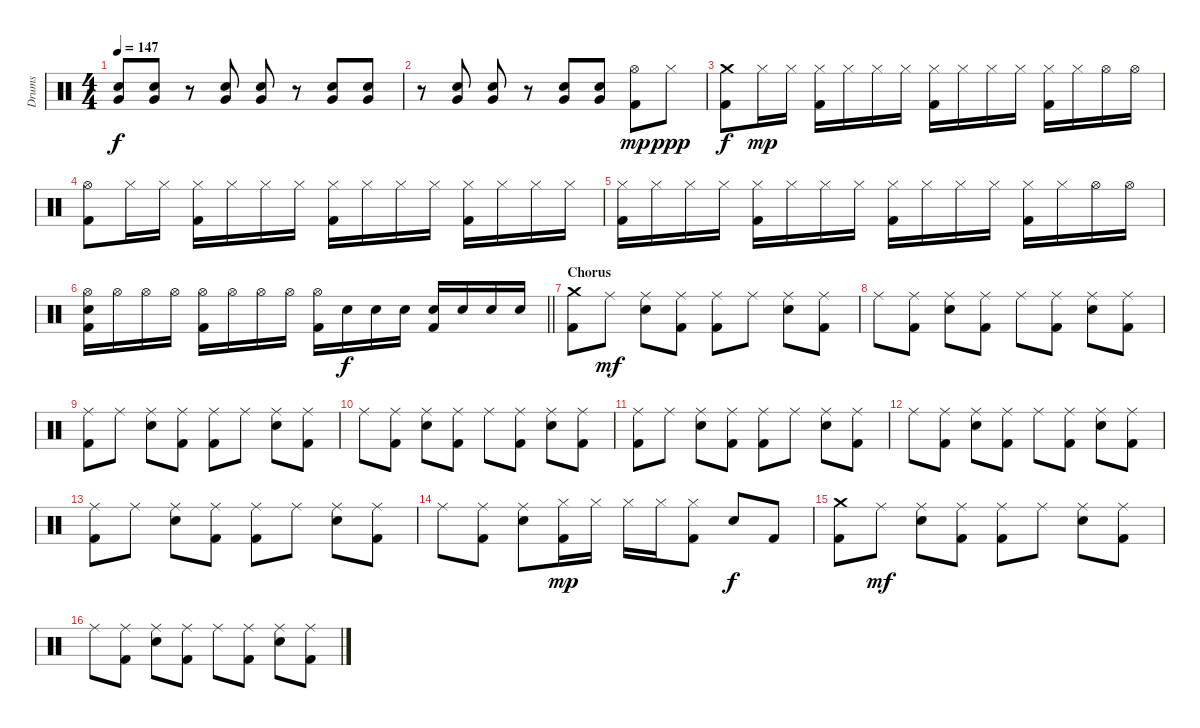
\track ("Drums" "Drums") {instrument percussion}
\staff {score}
\articulation defaults
\ts (4 4)
\tempo 147
\clef neutral
\ks c
("Very Low Tom (hit)" "Snare (hit) 2").8{dy f} ("Very Low Tom (hit)" "Snare (hit) 2").8 r.8 ("Very Low Tom (hit)" "Snare (hit) 2").8 ("Very Low Tom (hit)" "Snare (hit) 2").8 r.8 ("Very Low Tom (hit)" "Snare (hit) 2").8 ("Very Low Tom (hit)" "Snare (hit) 2").8 |
r.8 ("Very Low Tom (hit)" "Snare (hit) 2").8 ("Very Low Tom (hit)" "Snare (hit) 2").8 r.8 ("Very Low Tom (hit)" "Snare (hit) 2").8 ("Very Low Tom (hit)" "Snare (hit) 2").8 ("Hi-Hat (open)" "Kick (hit) 2").8{dy mp} "Hi-Hat (closed)".8{dy ppp} |
("Crash medium (hit)" "Kick (hit) 2").8{dy f} "Hi-Hat (closed)".16{dy mp} "Hi-Hat (closed)".16 ("Hi-Hat (closed)" "Kick (hit) 2").16 "Hi-Hat (closed)".16 "Hi-Hat (closed)".16 "Hi-Hat (closed)".16 ("Hi-Hat (closed)" "Kick (hit) 2").16 "Hi-Hat (closed)".16 "Hi-Hat (closed)".16 "Hi-Hat (closed)".16 ("Hi-Hat (closed)" "Kick (hit) 2").16 "Hi-Hat (closed)".16 "Hi-Hat (open)".16 "Hi-Hat (open)".16 |
("Hi-Hat (open)" "Kick (hit) 2").8 "Hi-Hat (closed)".16 "Hi-Hat (closed)".16 ("Hi-Hat (closed)" "Kick (hit) 2").16 "Hi-Hat (closed)".16 "Hi-Hat (closed)".16 "Hi-Hat (closed)".16 ("Hi-Hat (closed)" "Kick (hit) 2").16 "Hi-Hat (closed)".16 "Hi-Hat (closed)".16 "Hi-Hat (closed)".16 ("Hi-Hat (closed)" "Kick (hit) 2").16 "Hi-Hat (closed)".16 "Hi-Hat (closed)".16 "Hi-Hat (closed)".16 |
("Hi-Hat (closed)" "Kick (hit) 2").16 "Hi-Hat (closed)".16 "Hi-Hat (closed)".16 "Hi-Hat (closed)".16 ("Hi-Hat (closed)" "Kick (hit) 2").16 "Hi-Hat (closed)".16 "Hi-Hat (closed)".16 "Hi-Hat (closed)".16 ("Hi-Hat (closed)" "Kick (hit) 2").16 "Hi-Hat (closed)".16 "Hi-Hat (closed)".16 "Hi-Hat (closed)".16 ("Hi-Hat (closed)" "Kick (hit) 2").16 "Hi-Hat (closed)".16 "Hi-Hat (open)".16 "Hi-Hat (open)".16 |
\barLineRight lightlight
("Hi-Hat (open)" "Snare (hit) 2" "Kick (hit) 2").16 "Hi-Hat (open)".16 "Hi-Hat (open)".16 "Hi-Hat (open)".16 ("Hi-Hat (open)" "Kick (hit) 2").16 "Hi-Hat (open)".16 "Hi-Hat (open)".16 "Hi-Hat (open)".16 ("Hi-Hat (open)" "Kick (hit) 2").16 "Snare (hit) 2".16{dy f} "Snare (hit) 2".16 "Snare (hit) 2".16 ("Snare (hit) 2" "Kick (hit) 2").16 "Snare (hit) 2".16 "Snare (hit) 2".16 "Snare (hit) 2".16 |
\section ("" "Chorus")
("Crash medium (hit)" "Kick (hit) 2").8 "Ride (middle)".8{dy mf} ("Ride (middle)" "Snare (hit) 2").8 ("Ride (middle)" "Kick (hit) 2").8 ("Ride (middle)" "Kick (hit) 2").8 "Ride (middle)".8 ("Ride (middle)" "Snare (hit) 2").8 ("Ride (middle)" "Kick (hit) 2").8 |
"Ride (middle)".8 ("Ride (middle)" "Kick (hit) 2").8 ("Ride (middle)" "Snare (hit) 2").8 ("Ride (middle)" "Kick (hit) 2").8 "Ride (middle)".8 ("Ride (middle)" "Kick (hit) 2").8 ("Ride (middle)" "Snare (hit) 2").8 ("Ride (middle)" "Kick (hit) 2").8 |
("Ride (middle)" "Kick (hit) 2").8 "Ride (middle)".8 ("Ride (middle)" "Snare (hit) 2").8 ("Ride (middle)" "Kick (hit) 2").8 ("Ride (middle)" "Kick (hit) 2").8 "Ride (middle)".8 ("Ride (middle)" "Snare (hit) 2").8 ("Ride (middle)" "Kick (hit) 2").8 |
"Ride (middle)".8 ("Ride (middle)" "Kick (hit) 2").8 ("Ride (middle)" "Snare (hit) 2").8 ("Ride (middle)" "Kick (hit) 2").8 "Ride (middle)".8 ("Ride (middle)" "Kick (hit) 2").8 ("Ride (middle)" "Snare (hit) 2").8 ("Ride (middle)" "Kick (hit) 2").8 |
("Ride (middle)" "Kick (hit) 2").8 "Ride (middle)".8 ("Ride (middle)" "Snare (hit) 2").8 ("Ride (middle)" "Kick (hit) 2").8 ("Ride (middle)" "Kick (hit) 2").8 "Ride (middle)".8 ("Ride (middle)" "Snare (hit) 2").8 ("Ride (middle)" "Kick (hit) 2").8 |
"Ride (middle)".8 ("Ride (middle)" "Kick (hit) 2").8 ("Ride (middle)" "Snare (hit) 2").8 ("Ride (middle)" "Kick (hit) 2").8 "Ride (middle)".8 ("Ride (middle)" "Kick (hit) 2").8 ("Ride (middle)" "Snare (hit) 2").8 ("Ride (middle)" "Kick (hit) 2").8 |
("Ride (middle)" "Kick (hit) 2").8 "Ride (middle)".8 ("Ride (middle)" "Snare (hit) 2").8 ("Ride (middle)" "Kick (hit) 2").8 ("Ride (middle)" "Kick (hit) 2").8 "Ride (middle)".8 ("Ride (middle)" "Snare (hit) 2").8 ("Ride (middle)" "Kick (hit) 2").8 |
"Ride (middle)".8 ("Ride (middle)" "Kick (hit) 2").8 ("Ride (middle)" "Snare (hit) 2").8 ("Hi-Hat (closed)" "Kick (hit) 2").16{dy mp} "Hi-Hat (closed)".16 "Hi-Hat (closed)".16 "Hi-Hat (closed)".16 ("Hi-Hat (closed)" "Kick (hit) 2").8 "Snare (hit) 2".8{dy f} "Kick (hit) 2".8 |
("Crash medium (hit)" "Kick (hit) 2").8 "Ride (middle)".8{dy mf} ("Ride (middle)" "Snare (hit) 2").8 ("Ride (middle)" "Kick (hit) 2").8 ("Ride (middle)" "Kick (hit) 2").8 "Ride (middle)".8 ("Ride (middle)" "Snare (hit) 2").8 ("Ride (middle)" "Kick (hit) 2").8 |
"Ride (middle)".8 ("Ride (middle)" "Kick (hit) 2").8 ("Ride (middle)" "Snare (hit) 2").8 ("Ride (middle)" "Kick (hit) 2").8 "Ride (middle)".8 ("Ride (middle)" "Kick (hit) 2").8 ("Ride (middle)" "Snare (hit) 2").8 ("Ride (middle)" "Kick (hit) 2").8
